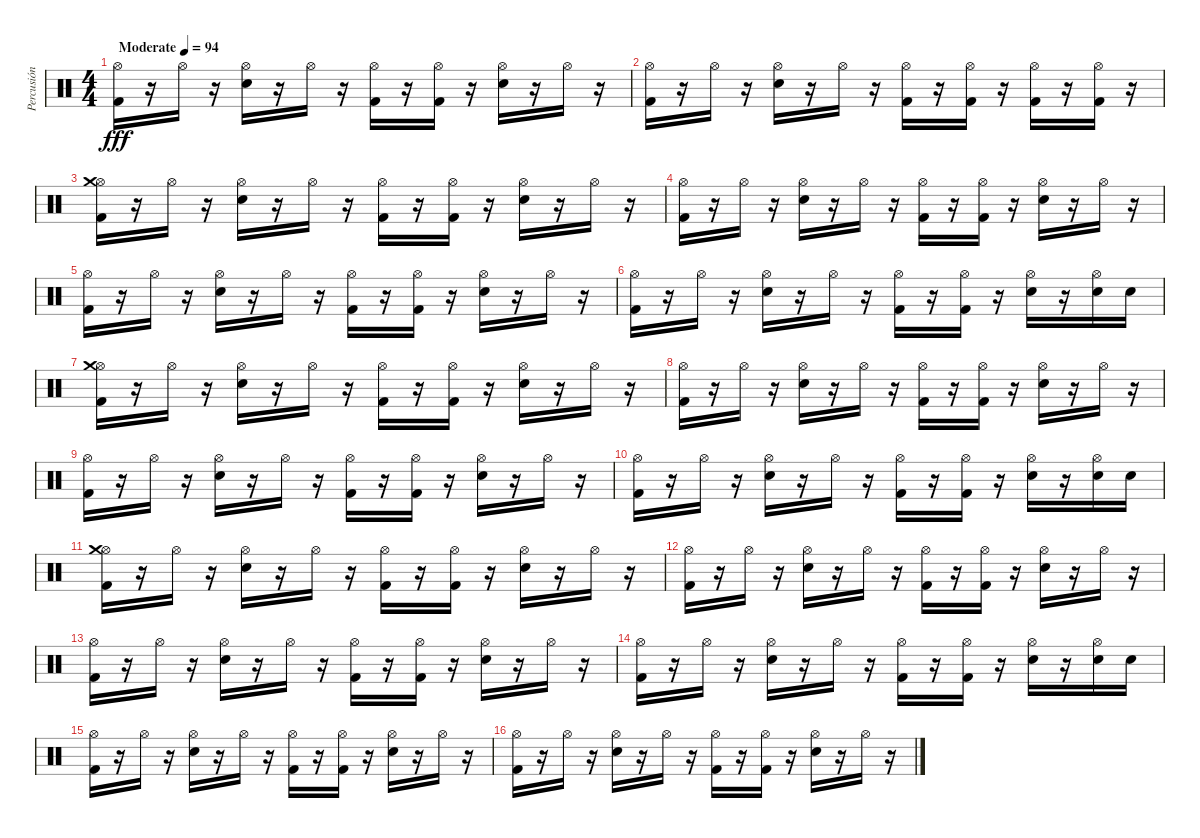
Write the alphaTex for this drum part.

\track ("Percusión" "Percusión") {instrument percussion}
\staff {score}
\articulation defaults
\ts (4 4)
\tempo (94 "Moderate")
\clef neutral
\ks c
("Hi-Hat (open)" "Kick (hit) 2").16{dy fff} r.16 "Hi-Hat (open)".16 r.16 ("Hi-Hat (open)" "Snare (hit) 2").16 r.16 "Hi-Hat (open)".16 r.16 ("Hi-Hat (open)" "Kick (hit) 2").16 r.16 ("Hi-Hat (open)" "Kick (hit) 2").16 r.16 ("Hi-Hat (open)" "Snare (hit) 2").16 r.16 "Hi-Hat (open)".16 r.16 |
("Hi-Hat (open)" "Kick (hit) 2").16 r.16 "Hi-Hat (open)".16 r.16 ("Hi-Hat (open)" "Snare (hit) 2").16 r.16 "Hi-Hat (open)".16 r.16 ("Hi-Hat (open)" "Kick (hit) 2").16 r.16 ("Hi-Hat (open)" "Kick (hit) 2").16 r.16 ("Hi-Hat (open)" "Kick (hit) 2").16 r.16 ("Hi-Hat (open)" "Kick (hit) 2").16 r.16 |
("Hi-Hat (open)" "Kick (hit) 2" "Crash medium (hit)").16 r.16 "Hi-Hat (open)".16 r.16 ("Hi-Hat (open)" "Snare (hit) 2").16 r.16 "Hi-Hat (open)".16 r.16 ("Hi-Hat (open)" "Kick (hit) 2").16 r.16 ("Hi-Hat (open)" "Kick (hit) 2").16 r.16 ("Hi-Hat (open)" "Snare (hit) 2").16 r.16 "Hi-Hat (open)".16 r.16 |
("Hi-Hat (open)" "Kick (hit) 2").16 r.16 "Hi-Hat (open)".16 r.16 ("Hi-Hat (open)" "Snare (hit) 2").16 r.16 "Hi-Hat (open)".16 r.16 ("Hi-Hat (open)" "Kick (hit) 2").16 r.16 ("Hi-Hat (open)" "Kick (hit) 2").16 r.16 ("Hi-Hat (open)" "Snare (hit) 2").16 r.16 "Hi-Hat (open)".16 r.16 |
("Hi-Hat (open)" "Kick (hit) 2").16 r.16 "Hi-Hat (open)".16 r.16 ("Hi-Hat (open)" "Snare (hit) 2").16 r.16 "Hi-Hat (open)".16 r.16 ("Hi-Hat (open)" "Kick (hit) 2").16 r.16 ("Hi-Hat (open)" "Kick (hit) 2").16 r.16 ("Hi-Hat (open)" "Snare (hit) 2").16 r.16 "Hi-Hat (open)".16 r.16 |
("Hi-Hat (open)" "Kick (hit) 2").16 r.16 "Hi-Hat (open)".16 r.16 ("Hi-Hat (open)" "Snare (hit) 2").16 r.16 "Hi-Hat (open)".16 r.16 ("Hi-Hat (open)" "Kick (hit) 2").16 r.16 ("Hi-Hat (open)" "Kick (hit) 2").16 r.16 ("Hi-Hat (open)" "Snare (hit) 2").16 r.16 ("Hi-Hat (open)" "Snare (hit) 2").16 "Snare (hit) 2".16 |
("Hi-Hat (open)" "Kick (hit) 2" "Crash medium (hit)").16 r.16 "Hi-Hat (open)".16 r.16 ("Hi-Hat (open)" "Snare (hit) 2").16 r.16 "Hi-Hat (open)".16 r.16 ("Hi-Hat (open)" "Kick (hit) 2").16 r.16 ("Hi-Hat (open)" "Kick (hit) 2").16 r.16 ("Hi-Hat (open)" "Snare (hit) 2").16 r.16 "Hi-Hat (open)".16 r.16 |
("Hi-Hat (open)" "Kick (hit) 2").16 r.16 "Hi-Hat (open)".16 r.16 ("Hi-Hat (open)" "Snare (hit) 2").16 r.16 "Hi-Hat (open)".16 r.16 ("Hi-Hat (open)" "Kick (hit) 2").16 r.16 ("Hi-Hat (open)" "Kick (hit) 2").16 r.16 ("Hi-Hat (open)" "Snare (hit) 2").16 r.16 "Hi-Hat (open)".16 r.16 |
("Hi-Hat (open)" "Kick (hit) 2").16 r.16 "Hi-Hat (open)".16 r.16 ("Hi-Hat (open)" "Snare (hit) 2").16 r.16 "Hi-Hat (open)".16 r.16 ("Hi-Hat (open)" "Kick (hit) 2").16 r.16 ("Hi-Hat (open)" "Kick (hit) 2").16 r.16 ("Hi-Hat (open)" "Snare (hit) 2").16 r.16 "Hi-Hat (open)".16 r.16 |
("Hi-Hat (open)" "Kick (hit) 2").16 r.16 "Hi-Hat (open)".16 r.16 ("Hi-Hat (open)" "Snare (hit) 2").16 r.16 "Hi-Hat (open)".16 r.16 ("Hi-Hat (open)" "Kick (hit) 2").16 r.16 ("Hi-Hat (open)" "Kick (hit) 2").16 r.16 ("Hi-Hat (open)" "Snare (hit) 2").16 r.16 ("Hi-Hat (open)" "Snare (hit) 2").16 "Snare (hit) 2".16 |
("Hi-Hat (open)" "Kick (hit) 2" "Crash medium (hit)").16 r.16 "Hi-Hat (open)".16 r.16 ("Hi-Hat (open)" "Snare (hit) 2").16 r.16 "Hi-Hat (open)".16 r.16 ("Hi-Hat (open)" "Kick (hit) 2").16 r.16 ("Hi-Hat (open)" "Kick (hit) 2").16 r.16 ("Hi-Hat (open)" "Snare (hit) 2").16 r.16 "Hi-Hat (open)".16 r.16 |
("Hi-Hat (open)" "Kick (hit) 2").16 r.16 "Hi-Hat (open)".16 r.16 ("Hi-Hat (open)" "Snare (hit) 2").16 r.16 "Hi-Hat (open)".16 r.16 ("Hi-Hat (open)" "Kick (hit) 2").16 r.16 ("Hi-Hat (open)" "Kick (hit) 2").16 r.16 ("Hi-Hat (open)" "Snare (hit) 2").16 r.16 "Hi-Hat (open)".16 r.16 |
("Hi-Hat (open)" "Kick (hit) 2").16 r.16 "Hi-Hat (open)".16 r.16 ("Hi-Hat (open)" "Snare (hit) 2").16 r.16 "Hi-Hat (open)".16 r.16 ("Hi-Hat (open)" "Kick (hit) 2").16 r.16 ("Hi-Hat (open)" "Kick (hit) 2").16 r.16 ("Hi-Hat (open)" "Snare (hit) 2").16 r.16 "Hi-Hat (open)".16 r.16 |
("Hi-Hat (open)" "Kick (hit) 2").16 r.16 "Hi-Hat (open)".16 r.16 ("Hi-Hat (open)" "Snare (hit) 2").16 r.16 "Hi-Hat (open)".16 r.16 ("Hi-Hat (open)" "Kick (hit) 2").16 r.16 ("Hi-Hat (open)" "Kick (hit) 2").16 r.16 ("Hi-Hat (open)" "Snare (hit) 2").16 r.16 ("Hi-Hat (open)" "Snare (hit) 2").16 "Snare (hit) 2".16 |
("Hi-Hat (open)" "Kick (hit) 2").16 r.16 "Hi-Hat (open)".16 r.16 ("Hi-Hat (open)" "Snare (hit) 2").16 r.16 "Hi-Hat (open)".16 r.16 ("Hi-Hat (open)" "Kick (hit) 2").16 r.16 ("Hi-Hat (open)" "Kick (hit) 2").16 r.16 ("Hi-Hat (open)" "Snare (hit) 2").16 r.16 "Hi-Hat (open)".16 r.16 |
("Hi-Hat (open)" "Kick (hit) 2").16 r.16 "Hi-Hat (open)".16 r.16 ("Hi-Hat (open)" "Snare (hit) 2").16 r.16 "Hi-Hat (open)".16 r.16 ("Hi-Hat (open)" "Kick (hit) 2").16 r.16 ("Hi-Hat (open)" "Kick (hit) 2").16 r.16 ("Hi-Hat (open)" "Snare (hit) 2").16 r.16 "Hi-Hat (open)".16 r.16
